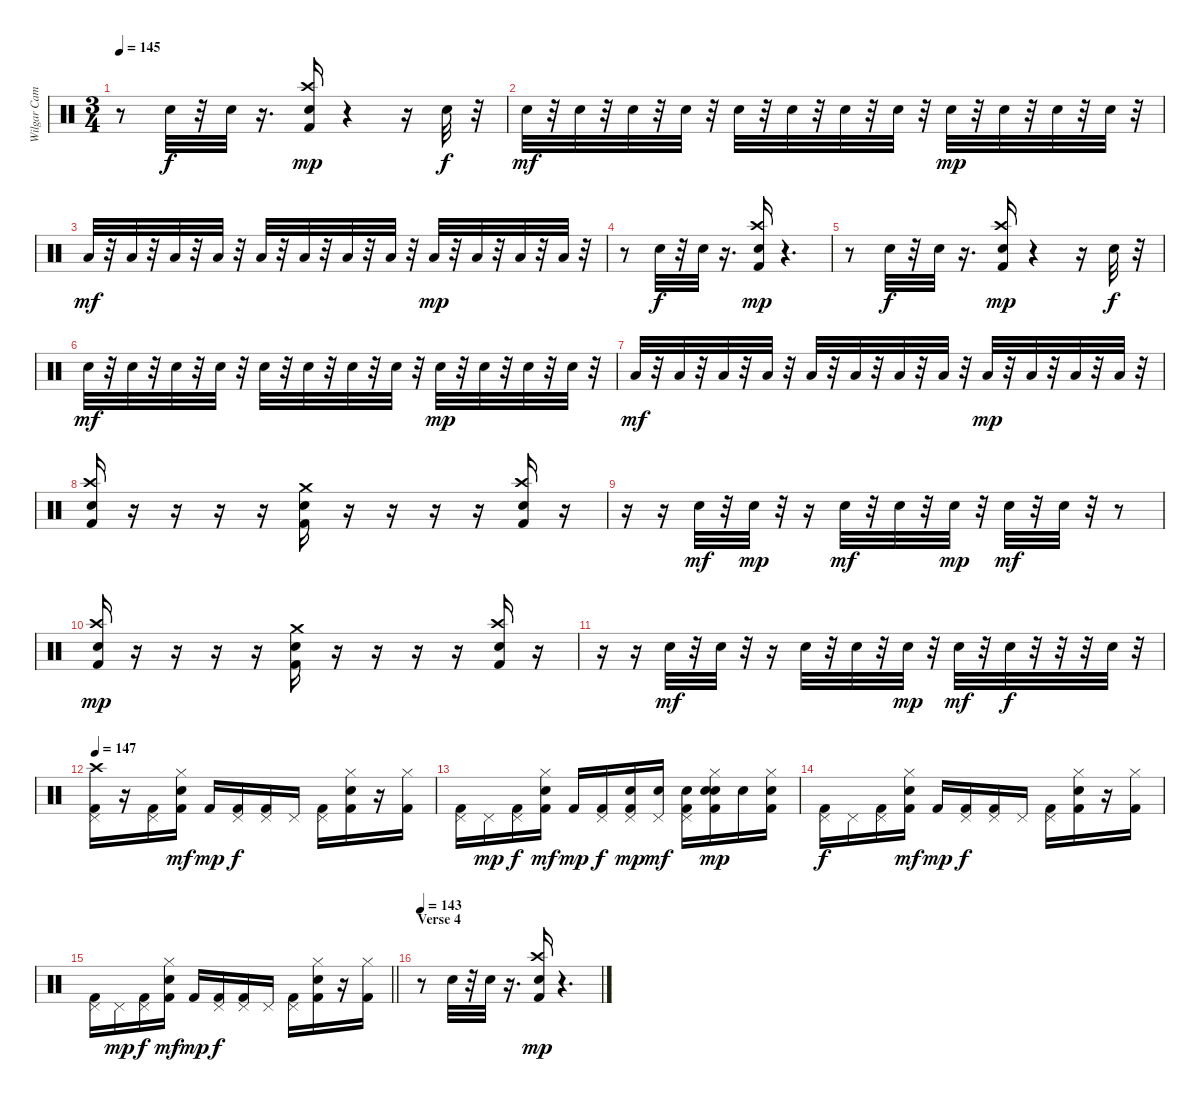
\track ("Wilgar Campbell" "Wilgar Cam") {instrument percussion}
\staff {score}
\articulation defaults
\ts (3 4)
\tempo 145
\clef neutral
\ks c
r.8{dy mp} "Snare (hit) 2".32{dy f} r.32 "Snare (hit) 2".32 r.16{d} ("Crash high (hit)" "Snare (hit) 2" "Kick (hit) 2").16{dy mp} r.4 r.16 "Snare (hit) 2".32{dy f} r.32 |
"Snare (hit) 2".32{dy mf} r.32 "Snare (hit) 2".32 r.32 "Snare (hit) 2".32 r.32 "Snare (hit) 2".32 r.32 "Snare (hit) 2".32 r.32 "Snare (hit) 2".32 r.32 "Snare (hit) 2".32 r.32 "Snare (hit) 2".32 r.32 "Snare (hit) 2".32{dy mp} r.32 "Snare (hit) 2".32 r.32 "Snare (hit) 2".32 r.32 "Snare (hit) 2".32 r.32 |
"Low Tom (hit)".32{dy mf} r.32 "Low Tom (hit)".32 r.32 "Low Tom (hit)".32 r.32 "Low Tom (hit)".32 r.32 "Low Tom (hit)".32 r.32 "Low Tom (hit)".32 r.32 "Low Tom (hit)".32 r.32 "Low Tom (hit)".32 r.32 "Low Tom (hit)".32{dy mp} r.32 "Low Tom (hit)".32 r.32 "Low Tom (hit)".32 r.32 "Low Tom (hit)".32 r.32 |
r.8 "Snare (hit) 2".32{dy f} r.32 "Snare (hit) 2".32 r.16{d} ("Crash high (hit)" "Snare (hit) 2" "Kick (hit) 2").16{dy mp} r.4{d} |
r.8 "Snare (hit) 2".32{dy f} r.32 "Snare (hit) 2".32 r.16{d} ("Crash high (hit)" "Snare (hit) 2" "Kick (hit) 2").16{dy mp} r.4 r.16 "Snare (hit) 2".32{dy f} r.32 |
"Snare (hit) 2".32{dy mf} r.32 "Snare (hit) 2".32 r.32 "Snare (hit) 2".32 r.32 "Snare (hit) 2".32 r.32 "Snare (hit) 2".32 r.32 "Snare (hit) 2".32 r.32 "Snare (hit) 2".32 r.32 "Snare (hit) 2".32 r.32 "Snare (hit) 2".32{dy mp} r.32 "Snare (hit) 2".32 r.32 "Snare (hit) 2".32 r.32 "Snare (hit) 2".32 r.32 |
"Low Tom (hit)".32{dy mf} r.32 "Low Tom (hit)".32 r.32 "Low Tom (hit)".32 r.32 "Low Tom (hit)".32 r.32 "Low Tom (hit)".32 r.32 "Low Tom (hit)".32 r.32 "Low Tom (hit)".32 r.32 "Low Tom (hit)".32 r.32 "Low Tom (hit)".32{dy mp} r.32 "Low Tom (hit)".32 r.32 "Low Tom (hit)".32 r.32 "Low Tom (hit)".32 r.32 |
("Crash high (hit)" "Snare (hit) 2" "Kick (hit) 2").16 r.16 r.16 r.16 r.16 ("Crash medium (hit)" "Snare (hit) 2" "Kick (hit) 2").16 r.16 r.16 r.16 r.16 ("Crash high (hit)" "Snare (hit) 2" "Kick (hit) 2").16 r.16 |
r.16 r.16 "Snare (hit) 2".32{dy mf} r.32 "Electric Snare (hit)".32{dy mp} r.32 r.16 "Snare (hit) 2".32{dy mf} r.32 "Snare (hit) 2".32 r.32 "Snare (hit) 2".32{dy mp} r.32 "Snare (hit) 2".32{dy mf} r.32 "Electric Snare (hit)".32 r.32 r.8 |
("Crash high (hit)" "Snare (hit) 2" "Kick (hit) 2").16{dy mp} r.16 r.16 r.16 r.16 ("Crash medium (hit)" "Snare (hit) 2" "Kick (hit) 2").16 r.16 r.16 r.16 r.16 ("Crash high (hit)" "Snare (hit) 2" "Kick (hit) 2").16 r.16 |
r.16 r.16 "Snare (hit) 2".32{dy mf} r.32 "Snare (hit) 2".32 r.32 r.16 "Snare (hit) 2".32 r.32 "Snare (hit) 2".32 r.32 "Snare (hit) 2".32{dy mp} r.32 "Snare (hit) 2".32{dy mf} r.32 "Snare (hit) 2".32{dy f} r.32 r.32 r.32 "Snare (hit) 2".32 r.32 |
\tempo 147
("Crash high (hit)" "Pedal Hi-Hat (hit)" "Kick (hit) 2").16 r.16 ("Pedal Hi-Hat (hit)" "Kick (hit) 2").16 ("Snare (hit) 2" "Hi-Hat (closed)" "Kick (hit) 2").16{dy mf} "Kick (hit) 2".16{dy mp} ("Pedal Hi-Hat (hit)" "Kick (hit) 2").16{dy f} ("Pedal Hi-Hat (hit)" "Kick (hit) 2").16 "Pedal Hi-Hat (hit)".16 ("Pedal Hi-Hat (hit)" "Kick (hit) 2").16 ("Snare (hit) 2" "Hi-Hat (closed)" "Kick (hit) 2").16 r.16 ("Hi-Hat (closed)" "Kick (hit) 2").16 |
("Pedal Hi-Hat (hit)" "Kick (hit) 2").16 "Pedal Hi-Hat (hit)".16{dy mp} ("Pedal Hi-Hat (hit)" "Kick (hit) 2").16{dy f} ("Snare (hit) 2" "Hi-Hat (closed)" "Kick (hit) 2").16{dy mf} "Kick (hit) 2".16{dy mp} ("Pedal Hi-Hat (hit)" "Kick (hit) 2").16{dy f} ("Pedal Hi-Hat (hit)" "Snare (hit) 2" "Kick (hit) 2").16{dy mp} ("Pedal Hi-Hat (hit)" "Snare (hit) 2").16{dy mf} ("Pedal Hi-Hat (hit)" "Snare (hit) 2" "Kick (hit) 2").16 ("Snare (hit) 2" "Hi-Hat (closed)" "Snare (hit) 2" "Kick (hit) 2").16{dy mp} "Snare (hit) 2".16 ("Hi-Hat (closed)" "Snare (hit) 2" "Kick (hit) 2").16 |
("Pedal Hi-Hat (hit)" "Kick (hit) 2").16{dy f} "Pedal Hi-Hat (hit)".16 ("Pedal Hi-Hat (hit)" "Kick (hit) 2").16 ("Snare (hit) 2" "Hi-Hat (closed)" "Kick (hit) 2").16{dy mf} "Kick (hit) 2".16{dy mp} ("Pedal Hi-Hat (hit)" "Kick (hit) 2").16{dy f} ("Pedal Hi-Hat (hit)" "Kick (hit) 2").16 "Pedal Hi-Hat (hit)".16 ("Pedal Hi-Hat (hit)" "Kick (hit) 2").16 ("Snare (hit) 2" "Hi-Hat (closed)" "Kick (hit) 2").16 r.16 ("Hi-Hat (closed)" "Kick (hit) 2").16 |
\barLineRight lightlight
("Pedal Hi-Hat (hit)" "Kick (hit) 2").16 "Pedal Hi-Hat (hit)".16{dy mp} ("Pedal Hi-Hat (hit)" "Kick (hit) 2").16{dy f} ("Snare (hit) 2" "Hi-Hat (closed)" "Kick (hit) 2").16{dy mf} "Kick (hit) 2".16{dy mp} ("Pedal Hi-Hat (hit)" "Kick (hit) 2").16{dy f} ("Pedal Hi-Hat (hit)" "Kick (hit) 2").16 "Pedal Hi-Hat (hit)".16 ("Pedal Hi-Hat (hit)" "Kick (hit) 2").16 ("Snare (hit) 2" "Hi-Hat (closed)" "Kick (hit) 2").16 r.16 ("Hi-Hat (closed)" "Kick (hit) 2").16 |
\section ("" "Verse 4")
\tempo 143
r.8 "Snare (hit) 2".32 r.32 "Snare (hit) 2".32 r.16{d} ("Crash high (hit)" "Snare (hit) 2" "Kick (hit) 2").16{dy mp} r.4{d}
